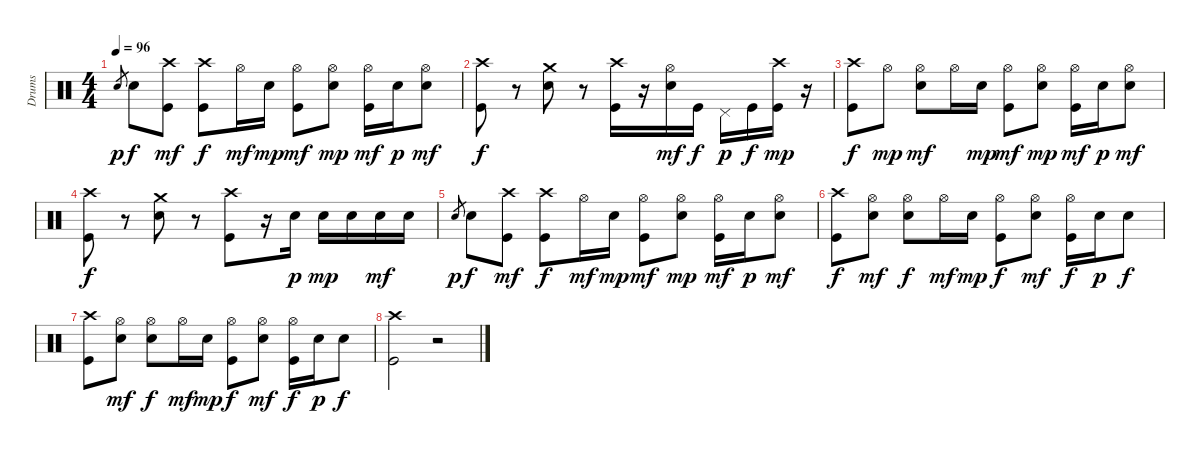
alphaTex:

\track ("Drums" "Drums") {instrument percussion}
\staff {score}
\articulation defaults
\ts (4 4)
\tempo 96
\clef neutral
\ks c "Snare (hit) 2".8{gr dy p} "Snare (hit) 2".8{dy f}
("Crash high (hit)" "Kick (hit)").8{dy mf} ("Crash high (hit)" "Kick (hit)").8{dy f} "Hi-Hat (open)".16{dy mf} "Snare (hit) 2".16{dy mp} ("Hi-Hat (open)" "Kick (hit)").8{dy mf} ("Hi-Hat (open)" "Snare (hit) 2").8{dy mp} ("Hi-Hat (open)" "Kick (hit)").16{dy mf} "Snare (hit) 2".16{dy p} ("Hi-Hat (open)" "Snare (hit) 2").8{dy mf} |
("Crash high (hit)" "Kick (hit)").8{dy f} r.8 ("Crash medium (hit)" "Snare (hit) 2").8 r.8 ("Crash high (hit)" "Kick (hit)").16 r.16 ("Hi-Hat (open)" "Snare (hit) 2").16{dy mf} "Kick (hit)".16{dy f} "Pedal Hi-Hat (hit)".16{dy p} "Kick (hit)".16{dy f} ("Crash high (hit)" "Kick (hit)").16{dy mp} r.16 |
("Crash high (hit)" "Kick (hit)").8{dy f} "Hi-Hat (open)".8{dy mp} ("Hi-Hat (open)" "Snare (hit) 2").8{dy mf} "Hi-Hat (open)".16 "Snare (hit) 2".16{dy mp} ("Hi-Hat (open)" "Kick (hit)").8{dy mf} ("Hi-Hat (open)" "Snare (hit) 2").8{dy mp} ("Hi-Hat (open)" "Kick (hit)").16{dy mf} "Snare (hit) 2".16{dy p} ("Hi-Hat (open)" "Snare (hit) 2").8{dy mf} |
("Crash high (hit)" "Kick (hit)").8{dy f} r.8 ("Crash medium (hit)" "Snare (hit) 2").8 r.8 ("Crash high (hit)" "Kick (hit)").8 r.16 "Snare (hit) 2".16{dy p} "Snare (hit) 2".16{dy mp} "Snare (hit) 2".16 "Snare (hit) 2".16{dy mf} "Snare (hit) 2".16 |
"Snare (hit) 2".8{gr dy p} "Snare (hit) 2".8{dy f} ("Crash high (hit)" "Kick (hit)").8{dy mf} ("Crash high (hit)" "Kick (hit)").8{dy f} "Hi-Hat (open)".16{dy mf} "Snare (hit) 2".16{dy mp} ("Hi-Hat (open)" "Kick (hit)").8{dy mf} ("Hi-Hat (open)" "Snare (hit) 2").8{dy mp} ("Hi-Hat (open)" "Kick (hit)").16{dy mf} "Snare (hit) 2".16{dy p} ("Hi-Hat (open)" "Snare (hit) 2").8{dy mf} |
("Crash high (hit)" "Kick (hit)").8{dy f} ("Hi-Hat (open)" "Snare (hit) 2").8{dy mf} ("Hi-Hat (open)" "Snare (hit) 2").8{dy f} "Hi-Hat (open)".16{dy mf} "Snare (hit) 2".16{dy mp} ("Hi-Hat (open)" "Kick (hit)").8{dy f} ("Hi-Hat (open)" "Snare (hit) 2").8{dy mf} ("Hi-Hat (open)" "Kick (hit)").16{dy f} "Snare (hit) 2".16{dy p} "Snare (hit) 2".8{dy f} |
("Crash high (hit)" "Kick (hit)").8 ("Hi-Hat (open)" "Snare (hit) 2").8{dy mf} ("Hi-Hat (open)" "Snare (hit) 2").8{dy f} "Hi-Hat (open)".16{dy mf} "Snare (hit) 2".16{dy mp} ("Hi-Hat (open)" "Kick (hit)").8{dy f} ("Hi-Hat (open)" "Snare (hit) 2").8{dy mf} ("Hi-Hat (open)" "Kick (hit)").16{dy f} "Snare (hit) 2".16{dy p} "Snare (hit) 2".8{dy f} |
("Crash high (hit)" "Kick (hit)").2 r.2
